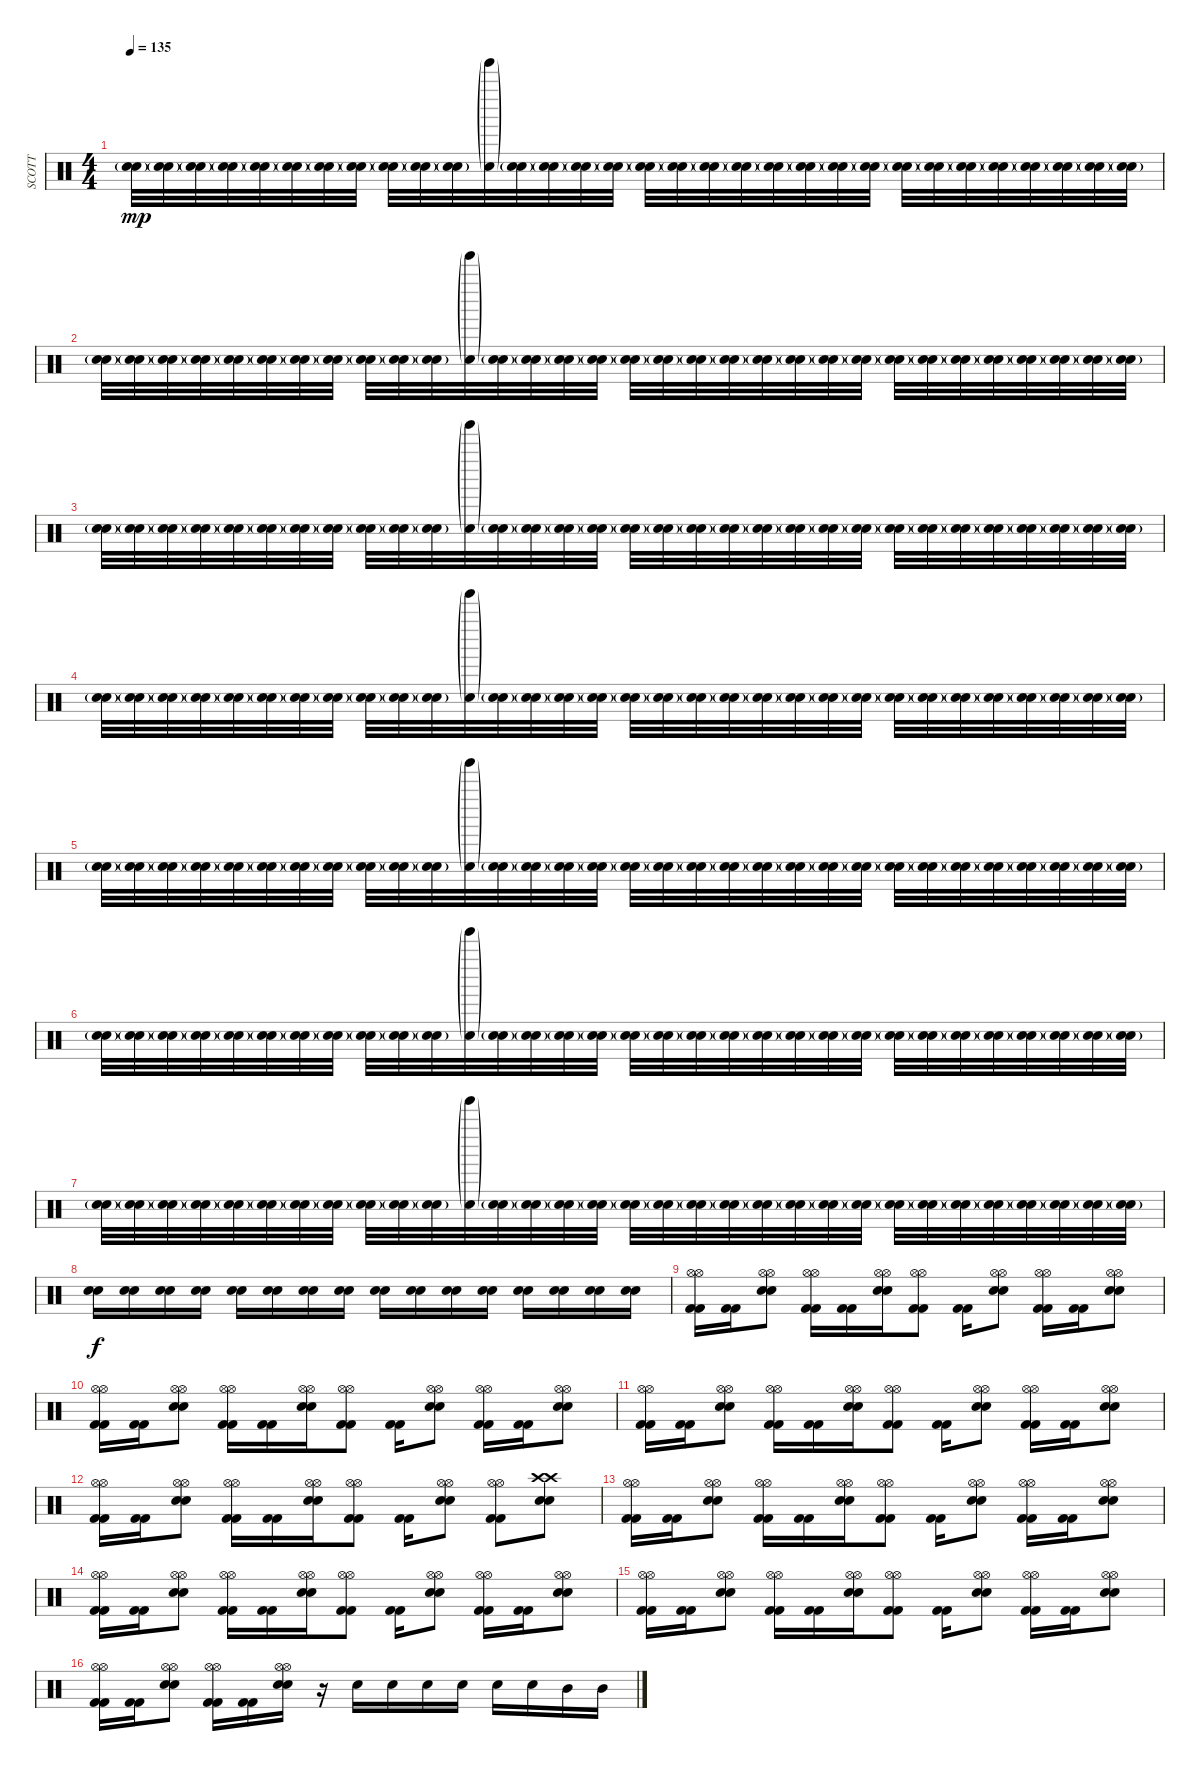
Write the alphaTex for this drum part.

\track ("SCOTT" "SCOTT") {instrument percussion}
\staff {score}
\articulation defaults
\ts (4 4)
\tempo 135
\clef neutral
\ks c
("Snare (hit) 2"{g} "Snare (hit) 2"{g}).32{dy mp} ("Snare (hit) 2"{g} "Snare (hit) 2"{g}).32 ("Snare (hit) 2"{g} "Snare (hit) 2"{g}).32 ("Snare (hit) 2"{g} "Snare (hit) 2"{g}).32 ("Snare (hit) 2"{g} "Snare (hit) 2"{g}).32 ("Snare (hit) 2"{g} "Snare (hit) 2"{g}).32 ("Snare (hit) 2"{g} "Snare (hit) 2"{g}).32 ("Snare (hit) 2"{g} "Snare (hit) 2"{g}).32 ("Snare (hit) 2"{g} "Snare (hit) 2"{g}).32 ("Snare (hit) 2"{g} "Snare (hit) 2"{g}).32 ("Snare (hit) 2"{g} "Snare (hit) 2"{g}).32 ("Snare (hit) 2"{g} "Tinkle Bell (hit)"{g}).32 ("Snare (hit) 2"{g} "Snare (hit) 2"{g}).32 ("Snare (hit) 2"{g} "Snare (hit) 2"{g}).32 ("Snare (hit) 2"{g} "Snare (hit) 2"{g}).32 ("Snare (hit) 2"{g} "Snare (hit) 2"{g}).32 ("Snare (hit) 2"{g} "Snare (hit) 2"{g}).32 ("Snare (hit) 2"{g} "Snare (hit) 2"{g}).32 ("Snare (hit) 2"{g} "Snare (hit) 2"{g}).32 ("Snare (hit) 2"{g} "Snare (hit) 2"{g}).32 ("Snare (hit) 2"{g} "Snare (hit) 2"{g}).32 ("Snare (hit) 2"{g} "Snare (hit) 2"{g}).32 ("Snare (hit) 2"{g} "Snare (hit) 2"{g}).32 ("Snare (hit) 2"{g} "Snare (hit) 2"{g}).32 ("Snare (hit) 2"{g} "Snare (hit) 2"{g}).32 ("Snare (hit) 2"{g} "Snare (hit) 2"{g}).32 ("Snare (hit) 2"{g} "Snare (hit) 2"{g}).32 ("Snare (hit) 2"{g} "Snare (hit) 2"{g}).32 ("Snare (hit) 2"{g} "Snare (hit) 2"{g}).32 ("Snare (hit) 2"{g} "Snare (hit) 2"{g}).32 ("Snare (hit) 2"{g} "Snare (hit) 2"{g}).32 ("Snare (hit) 2"{g} "Snare (hit) 2"{g}).32 |
("Snare (hit) 2"{g} "Snare (hit) 2"{g}).32 ("Snare (hit) 2"{g} "Snare (hit) 2"{g}).32 ("Snare (hit) 2"{g} "Snare (hit) 2"{g}).32 ("Snare (hit) 2"{g} "Snare (hit) 2"{g}).32 ("Snare (hit) 2"{g} "Snare (hit) 2"{g}).32 ("Snare (hit) 2"{g} "Snare (hit) 2"{g}).32 ("Snare (hit) 2"{g} "Snare (hit) 2"{g}).32 ("Snare (hit) 2"{g} "Snare (hit) 2"{g}).32 ("Snare (hit) 2"{g} "Snare (hit) 2"{g}).32 ("Snare (hit) 2"{g} "Snare (hit) 2"{g}).32 ("Snare (hit) 2"{g} "Snare (hit) 2"{g}).32 ("Snare (hit) 2"{g} "Tinkle Bell (hit)"{g}).32 ("Snare (hit) 2"{g} "Snare (hit) 2"{g}).32 ("Snare (hit) 2"{g} "Snare (hit) 2"{g}).32 ("Snare (hit) 2"{g} "Snare (hit) 2"{g}).32 ("Snare (hit) 2"{g} "Snare (hit) 2"{g}).32 ("Snare (hit) 2"{g} "Snare (hit) 2"{g}).32 ("Snare (hit) 2"{g} "Snare (hit) 2"{g}).32 ("Snare (hit) 2"{g} "Snare (hit) 2"{g}).32 ("Snare (hit) 2"{g} "Snare (hit) 2"{g}).32 ("Snare (hit) 2"{g} "Snare (hit) 2"{g}).32 ("Snare (hit) 2"{g} "Snare (hit) 2"{g}).32 ("Snare (hit) 2"{g} "Snare (hit) 2"{g}).32 ("Snare (hit) 2"{g} "Snare (hit) 2"{g}).32 ("Snare (hit) 2"{g} "Snare (hit) 2"{g}).32 ("Snare (hit) 2"{g} "Snare (hit) 2"{g}).32 ("Snare (hit) 2"{g} "Snare (hit) 2"{g}).32 ("Snare (hit) 2"{g} "Snare (hit) 2"{g}).32 ("Snare (hit) 2"{g} "Snare (hit) 2"{g}).32 ("Snare (hit) 2"{g} "Snare (hit) 2"{g}).32 ("Snare (hit) 2"{g} "Snare (hit) 2"{g}).32 ("Snare (hit) 2"{g} "Snare (hit) 2"{g}).32 |
("Snare (hit) 2"{g} "Snare (hit) 2"{g}).32 ("Snare (hit) 2"{g} "Snare (hit) 2"{g}).32 ("Snare (hit) 2"{g} "Snare (hit) 2"{g}).32 ("Snare (hit) 2"{g} "Snare (hit) 2"{g}).32 ("Snare (hit) 2"{g} "Snare (hit) 2"{g}).32 ("Snare (hit) 2"{g} "Snare (hit) 2"{g}).32 ("Snare (hit) 2"{g} "Snare (hit) 2"{g}).32 ("Snare (hit) 2"{g} "Snare (hit) 2"{g}).32 ("Snare (hit) 2"{g} "Snare (hit) 2"{g}).32 ("Snare (hit) 2"{g} "Snare (hit) 2"{g}).32 ("Snare (hit) 2"{g} "Snare (hit) 2"{g}).32 ("Snare (hit) 2"{g} "Tinkle Bell (hit)"{g}).32 ("Snare (hit) 2"{g} "Snare (hit) 2"{g}).32 ("Snare (hit) 2"{g} "Snare (hit) 2"{g}).32 ("Snare (hit) 2"{g} "Snare (hit) 2"{g}).32 ("Snare (hit) 2"{g} "Snare (hit) 2"{g}).32 ("Snare (hit) 2"{g} "Snare (hit) 2"{g}).32 ("Snare (hit) 2"{g} "Snare (hit) 2"{g}).32 ("Snare (hit) 2"{g} "Snare (hit) 2"{g}).32 ("Snare (hit) 2"{g} "Snare (hit) 2"{g}).32 ("Snare (hit) 2"{g} "Snare (hit) 2"{g}).32 ("Snare (hit) 2"{g} "Snare (hit) 2"{g}).32 ("Snare (hit) 2"{g} "Snare (hit) 2"{g}).32 ("Snare (hit) 2"{g} "Snare (hit) 2"{g}).32 ("Snare (hit) 2"{g} "Snare (hit) 2"{g}).32 ("Snare (hit) 2"{g} "Snare (hit) 2"{g}).32 ("Snare (hit) 2"{g} "Snare (hit) 2"{g}).32 ("Snare (hit) 2"{g} "Snare (hit) 2"{g}).32 ("Snare (hit) 2"{g} "Snare (hit) 2"{g}).32 ("Snare (hit) 2"{g} "Snare (hit) 2"{g}).32 ("Snare (hit) 2"{g} "Snare (hit) 2"{g}).32 ("Snare (hit) 2"{g} "Snare (hit) 2"{g}).32 |
("Snare (hit) 2"{g} "Snare (hit) 2"{g}).32 ("Snare (hit) 2"{g} "Snare (hit) 2"{g}).32 ("Snare (hit) 2"{g} "Snare (hit) 2"{g}).32 ("Snare (hit) 2"{g} "Snare (hit) 2"{g}).32 ("Snare (hit) 2"{g} "Snare (hit) 2"{g}).32 ("Snare (hit) 2"{g} "Snare (hit) 2"{g}).32 ("Snare (hit) 2"{g} "Snare (hit) 2"{g}).32 ("Snare (hit) 2"{g} "Snare (hit) 2"{g}).32 ("Snare (hit) 2"{g} "Snare (hit) 2"{g}).32 ("Snare (hit) 2"{g} "Snare (hit) 2"{g}).32 ("Snare (hit) 2"{g} "Snare (hit) 2"{g}).32 ("Snare (hit) 2"{g} "Tinkle Bell (hit)"{g}).32 ("Snare (hit) 2"{g} "Snare (hit) 2"{g}).32 ("Snare (hit) 2"{g} "Snare (hit) 2"{g}).32 ("Snare (hit) 2"{g} "Snare (hit) 2"{g}).32 ("Snare (hit) 2"{g} "Snare (hit) 2"{g}).32 ("Snare (hit) 2"{g} "Snare (hit) 2"{g}).32 ("Snare (hit) 2"{g} "Snare (hit) 2"{g}).32 ("Snare (hit) 2"{g} "Snare (hit) 2"{g}).32 ("Snare (hit) 2"{g} "Snare (hit) 2"{g}).32 ("Snare (hit) 2"{g} "Snare (hit) 2"{g}).32 ("Snare (hit) 2"{g} "Snare (hit) 2"{g}).32 ("Snare (hit) 2"{g} "Snare (hit) 2"{g}).32 ("Snare (hit) 2"{g} "Snare (hit) 2"{g}).32 ("Snare (hit) 2"{g} "Snare (hit) 2"{g}).32 ("Snare (hit) 2"{g} "Snare (hit) 2"{g}).32 ("Snare (hit) 2"{g} "Snare (hit) 2"{g}).32 ("Snare (hit) 2"{g} "Snare (hit) 2"{g}).32 ("Snare (hit) 2"{g} "Snare (hit) 2"{g}).32 ("Snare (hit) 2"{g} "Snare (hit) 2"{g}).32 ("Snare (hit) 2"{g} "Snare (hit) 2"{g}).32 ("Snare (hit) 2"{g} "Snare (hit) 2"{g}).32 |
("Snare (hit) 2"{g} "Snare (hit) 2"{g}).32 ("Snare (hit) 2"{g} "Snare (hit) 2"{g}).32 ("Snare (hit) 2"{g} "Snare (hit) 2"{g}).32 ("Snare (hit) 2"{g} "Snare (hit) 2"{g}).32 ("Snare (hit) 2"{g} "Snare (hit) 2"{g}).32 ("Snare (hit) 2"{g} "Snare (hit) 2"{g}).32 ("Snare (hit) 2"{g} "Snare (hit) 2"{g}).32 ("Snare (hit) 2"{g} "Snare (hit) 2"{g}).32 ("Snare (hit) 2"{g} "Snare (hit) 2"{g}).32 ("Snare (hit) 2"{g} "Snare (hit) 2"{g}).32 ("Snare (hit) 2"{g} "Snare (hit) 2"{g}).32 ("Snare (hit) 2"{g} "Tinkle Bell (hit)"{g}).32 ("Snare (hit) 2"{g} "Snare (hit) 2"{g}).32 ("Snare (hit) 2"{g} "Snare (hit) 2"{g}).32 ("Snare (hit) 2"{g} "Snare (hit) 2"{g}).32 ("Snare (hit) 2"{g} "Snare (hit) 2"{g}).32 ("Snare (hit) 2"{g} "Snare (hit) 2"{g}).32 ("Snare (hit) 2"{g} "Snare (hit) 2"{g}).32 ("Snare (hit) 2"{g} "Snare (hit) 2"{g}).32 ("Snare (hit) 2"{g} "Snare (hit) 2"{g}).32 ("Snare (hit) 2"{g} "Snare (hit) 2"{g}).32 ("Snare (hit) 2"{g} "Snare (hit) 2"{g}).32 ("Snare (hit) 2"{g} "Snare (hit) 2"{g}).32 ("Snare (hit) 2"{g} "Snare (hit) 2"{g}).32 ("Snare (hit) 2"{g} "Snare (hit) 2"{g}).32 ("Snare (hit) 2"{g} "Snare (hit) 2"{g}).32 ("Snare (hit) 2"{g} "Snare (hit) 2"{g}).32 ("Snare (hit) 2"{g} "Snare (hit) 2"{g}).32 ("Snare (hit) 2"{g} "Snare (hit) 2"{g}).32 ("Snare (hit) 2"{g} "Snare (hit) 2"{g}).32 ("Snare (hit) 2"{g} "Snare (hit) 2"{g}).32 ("Snare (hit) 2"{g} "Snare (hit) 2"{g}).32 |
("Snare (hit) 2"{g} "Snare (hit) 2"{g}).32 ("Snare (hit) 2"{g} "Snare (hit) 2"{g}).32 ("Snare (hit) 2"{g} "Snare (hit) 2"{g}).32 ("Snare (hit) 2"{g} "Snare (hit) 2"{g}).32 ("Snare (hit) 2"{g} "Snare (hit) 2"{g}).32 ("Snare (hit) 2"{g} "Snare (hit) 2"{g}).32 ("Snare (hit) 2"{g} "Snare (hit) 2"{g}).32 ("Snare (hit) 2"{g} "Snare (hit) 2"{g}).32 ("Snare (hit) 2"{g} "Snare (hit) 2"{g}).32 ("Snare (hit) 2"{g} "Snare (hit) 2"{g}).32 ("Snare (hit) 2"{g} "Snare (hit) 2"{g}).32 ("Snare (hit) 2"{g} "Tinkle Bell (hit)"{g}).32 ("Snare (hit) 2"{g} "Snare (hit) 2"{g}).32 ("Snare (hit) 2"{g} "Snare (hit) 2"{g}).32 ("Snare (hit) 2"{g} "Snare (hit) 2"{g}).32 ("Snare (hit) 2"{g} "Snare (hit) 2"{g}).32 ("Snare (hit) 2"{g} "Snare (hit) 2"{g}).32 ("Snare (hit) 2"{g} "Snare (hit) 2"{g}).32 ("Snare (hit) 2"{g} "Snare (hit) 2"{g}).32 ("Snare (hit) 2"{g} "Snare (hit) 2"{g}).32 ("Snare (hit) 2"{g} "Snare (hit) 2"{g}).32 ("Snare (hit) 2"{g} "Snare (hit) 2"{g}).32 ("Snare (hit) 2"{g} "Snare (hit) 2"{g}).32 ("Snare (hit) 2"{g} "Snare (hit) 2"{g}).32 ("Snare (hit) 2"{g} "Snare (hit) 2"{g}).32 ("Snare (hit) 2"{g} "Snare (hit) 2"{g}).32 ("Snare (hit) 2"{g} "Snare (hit) 2"{g}).32 ("Snare (hit) 2"{g} "Snare (hit) 2"{g}).32 ("Snare (hit) 2"{g} "Snare (hit) 2"{g}).32 ("Snare (hit) 2"{g} "Snare (hit) 2"{g}).32 ("Snare (hit) 2"{g} "Snare (hit) 2"{g}).32 ("Snare (hit) 2"{g} "Snare (hit) 2"{g}).32 |
("Snare (hit) 2"{g} "Snare (hit) 2"{g}).32 ("Snare (hit) 2"{g} "Snare (hit) 2"{g}).32 ("Snare (hit) 2"{g} "Snare (hit) 2"{g}).32 ("Snare (hit) 2"{g} "Snare (hit) 2"{g}).32 ("Snare (hit) 2"{g} "Snare (hit) 2"{g}).32 ("Snare (hit) 2"{g} "Snare (hit) 2"{g}).32 ("Snare (hit) 2"{g} "Snare (hit) 2"{g}).32 ("Snare (hit) 2"{g} "Snare (hit) 2"{g}).32 ("Snare (hit) 2"{g} "Snare (hit) 2"{g}).32 ("Snare (hit) 2"{g} "Snare (hit) 2"{g}).32 ("Snare (hit) 2"{g} "Snare (hit) 2"{g}).32 ("Snare (hit) 2"{g} "Tinkle Bell (hit)"{g}).32 ("Snare (hit) 2"{g} "Snare (hit) 2"{g}).32 ("Snare (hit) 2"{g} "Snare (hit) 2"{g}).32 ("Snare (hit) 2"{g} "Snare (hit) 2"{g}).32 ("Snare (hit) 2"{g} "Snare (hit) 2"{g}).32 ("Snare (hit) 2"{g} "Snare (hit) 2"{g}).32 ("Snare (hit) 2"{g} "Snare (hit) 2"{g}).32 ("Snare (hit) 2"{g} "Snare (hit) 2"{g}).32 ("Snare (hit) 2"{g} "Snare (hit) 2"{g}).32 ("Snare (hit) 2"{g} "Snare (hit) 2"{g}).32 ("Snare (hit) 2"{g} "Snare (hit) 2"{g}).32 ("Snare (hit) 2"{g} "Snare (hit) 2"{g}).32 ("Snare (hit) 2"{g} "Snare (hit) 2"{g}).32 ("Snare (hit) 2"{g} "Snare (hit) 2"{g}).32 ("Snare (hit) 2"{g} "Snare (hit) 2"{g}).32 ("Snare (hit) 2"{g} "Snare (hit) 2"{g}).32 ("Snare (hit) 2"{g} "Snare (hit) 2"{g}).32 ("Snare (hit) 2"{g} "Snare (hit) 2"{g}).32 ("Snare (hit) 2"{g} "Snare (hit) 2"{g}).32 ("Snare (hit) 2"{g} "Snare (hit) 2"{g}).32 ("Snare (hit) 2"{g} "Snare (hit) 2"{g}).32 |
("Snare (hit) 2" "Snare (hit) 2").16{dy f} ("Snare (hit) 2" "Snare (hit) 2").16 ("Snare (hit) 2" "Snare (hit) 2").16 ("Snare (hit) 2" "Snare (hit) 2").16 ("Snare (hit) 2" "Snare (hit) 2").16 ("Snare (hit) 2" "Snare (hit) 2").16 ("Snare (hit) 2" "Snare (hit) 2").16 ("Snare (hit) 2" "Snare (hit) 2").16 ("Snare (hit) 2" "Snare (hit) 2").16 ("Snare (hit) 2" "Snare (hit) 2").16 ("Snare (hit) 2" "Snare (hit) 2").16 ("Snare (hit) 2" "Snare (hit) 2").16 ("Snare (hit) 2" "Snare (hit) 2").16 ("Snare (hit) 2" "Snare (hit) 2").16 ("Snare (hit) 2" "Snare (hit) 2").16 ("Snare (hit) 2" "Snare (hit) 2").16 |
("Kick (hit) 2" "Kick (hit) 2" "Hi-Hat (open)" "Hi-Hat (open)").16 ("Kick (hit) 2" "Kick (hit) 2").16 ("Snare (hit) 2" "Snare (hit) 2" "Hi-Hat (open)" "Hi-Hat (open)").8 ("Kick (hit) 2" "Kick (hit) 2" "Hi-Hat (open)" "Hi-Hat (open)").16 ("Kick (hit) 2" "Kick (hit) 2").16 ("Snare (hit) 2" "Snare (hit) 2" "Hi-Hat (open)" "Hi-Hat (open)").16 ("Kick (hit) 2" "Kick (hit) 2" "Hi-Hat (open)" "Hi-Hat (open)").8 ("Kick (hit) 2" "Kick (hit) 2").16 ("Snare (hit) 2" "Snare (hit) 2" "Hi-Hat (open)" "Hi-Hat (open)").8 ("Kick (hit) 2" "Kick (hit) 2" "Hi-Hat (open)" "Hi-Hat (open)").16 ("Kick (hit) 2" "Kick (hit) 2").16 ("Snare (hit) 2" "Snare (hit) 2" "Hi-Hat (open)" "Hi-Hat (open)").8 |
("Kick (hit) 2" "Kick (hit) 2" "Hi-Hat (open)" "Hi-Hat (open)").16 ("Kick (hit) 2" "Kick (hit) 2").16 ("Snare (hit) 2" "Snare (hit) 2" "Hi-Hat (open)" "Hi-Hat (open)").8 ("Kick (hit) 2" "Kick (hit) 2" "Hi-Hat (open)" "Hi-Hat (open)").16 ("Kick (hit) 2" "Kick (hit) 2").16 ("Snare (hit) 2" "Snare (hit) 2" "Hi-Hat (open)" "Hi-Hat (open)").16 ("Kick (hit) 2" "Kick (hit) 2" "Hi-Hat (open)" "Hi-Hat (open)").8 ("Kick (hit) 2" "Kick (hit) 2").16 ("Snare (hit) 2" "Snare (hit) 2" "Hi-Hat (open)" "Hi-Hat (open)").8 ("Kick (hit) 2" "Kick (hit) 2" "Hi-Hat (open)" "Hi-Hat (open)").16 ("Kick (hit) 2" "Kick (hit) 2").16 ("Snare (hit) 2" "Snare (hit) 2" "Hi-Hat (open)" "Hi-Hat (open)").8 |
("Kick (hit) 2" "Kick (hit) 2" "Hi-Hat (open)" "Hi-Hat (open)").16 ("Kick (hit) 2" "Kick (hit) 2").16 ("Snare (hit) 2" "Snare (hit) 2" "Hi-Hat (open)" "Hi-Hat (open)").8 ("Kick (hit) 2" "Kick (hit) 2" "Hi-Hat (open)" "Hi-Hat (open)").16 ("Kick (hit) 2" "Kick (hit) 2").16 ("Snare (hit) 2" "Snare (hit) 2" "Hi-Hat (open)" "Hi-Hat (open)").16 ("Kick (hit) 2" "Kick (hit) 2" "Hi-Hat (open)" "Hi-Hat (open)").8 ("Kick (hit) 2" "Kick (hit) 2").16 ("Snare (hit) 2" "Snare (hit) 2" "Hi-Hat (open)" "Hi-Hat (open)").8 ("Kick (hit) 2" "Kick (hit) 2" "Hi-Hat (open)" "Hi-Hat (open)").16 ("Kick (hit) 2" "Kick (hit) 2").16 ("Snare (hit) 2" "Snare (hit) 2" "Hi-Hat (open)" "Hi-Hat (open)").8 |
("Kick (hit) 2" "Kick (hit) 2" "Hi-Hat (open)" "Hi-Hat (open)").16 ("Kick (hit) 2" "Kick (hit) 2").16 ("Snare (hit) 2" "Snare (hit) 2" "Hi-Hat (open)" "Hi-Hat (open)").8 ("Kick (hit) 2" "Kick (hit) 2" "Hi-Hat (open)" "Hi-Hat (open)").16 ("Kick (hit) 2" "Kick (hit) 2").16 ("Snare (hit) 2" "Snare (hit) 2" "Hi-Hat (open)" "Hi-Hat (open)").16 ("Kick (hit) 2" "Kick (hit) 2" "Hi-Hat (open)" "Hi-Hat (open)").8 ("Kick (hit) 2" "Kick (hit) 2").16 ("Snare (hit) 2" "Snare (hit) 2" "Hi-Hat (open)" "Hi-Hat (open)").8 ("Kick (hit) 2" "Kick (hit) 2" "Hi-Hat (open)" "Hi-Hat (open)").8 ("Snare (hit) 2" "Snare (hit) 2" "Crash high (hit)" "Crash high (hit)").8 |
("Kick (hit) 2" "Kick (hit) 2" "Hi-Hat (open)" "Hi-Hat (open)").16 ("Kick (hit) 2" "Kick (hit) 2").16 ("Snare (hit) 2" "Snare (hit) 2" "Hi-Hat (open)" "Hi-Hat (open)").8 ("Kick (hit) 2" "Kick (hit) 2" "Hi-Hat (open)" "Hi-Hat (open)").16 ("Kick (hit) 2" "Kick (hit) 2").16 ("Snare (hit) 2" "Snare (hit) 2" "Hi-Hat (open)" "Hi-Hat (open)").16 ("Kick (hit) 2" "Kick (hit) 2" "Hi-Hat (open)" "Hi-Hat (open)").8 ("Kick (hit) 2" "Kick (hit) 2").16 ("Snare (hit) 2" "Snare (hit) 2" "Hi-Hat (open)" "Hi-Hat (open)").8 ("Kick (hit) 2" "Kick (hit) 2" "Hi-Hat (open)" "Hi-Hat (open)").16 ("Kick (hit) 2" "Kick (hit) 2").16 ("Snare (hit) 2" "Snare (hit) 2" "Hi-Hat (open)" "Hi-Hat (open)").8 |
("Kick (hit) 2" "Kick (hit) 2" "Hi-Hat (open)" "Hi-Hat (open)").16 ("Kick (hit) 2" "Kick (hit) 2").16 ("Snare (hit) 2" "Snare (hit) 2" "Hi-Hat (open)" "Hi-Hat (open)").8 ("Kick (hit) 2" "Kick (hit) 2" "Hi-Hat (open)" "Hi-Hat (open)").16 ("Kick (hit) 2" "Kick (hit) 2").16 ("Snare (hit) 2" "Snare (hit) 2" "Hi-Hat (open)" "Hi-Hat (open)").16 ("Kick (hit) 2" "Kick (hit) 2" "Hi-Hat (open)" "Hi-Hat (open)").8 ("Kick (hit) 2" "Kick (hit) 2").16 ("Snare (hit) 2" "Snare (hit) 2" "Hi-Hat (open)" "Hi-Hat (open)").8 ("Kick (hit) 2" "Kick (hit) 2" "Hi-Hat (open)" "Hi-Hat (open)").16 ("Kick (hit) 2" "Kick (hit) 2").16 ("Snare (hit) 2" "Snare (hit) 2" "Hi-Hat (open)" "Hi-Hat (open)").8 |
("Kick (hit) 2" "Kick (hit) 2" "Hi-Hat (open)" "Hi-Hat (open)").16 ("Kick (hit) 2" "Kick (hit) 2").16 ("Snare (hit) 2" "Snare (hit) 2" "Hi-Hat (open)" "Hi-Hat (open)").8 ("Kick (hit) 2" "Kick (hit) 2" "Hi-Hat (open)" "Hi-Hat (open)").16 ("Kick (hit) 2" "Kick (hit) 2").16 ("Snare (hit) 2" "Snare (hit) 2" "Hi-Hat (open)" "Hi-Hat (open)").16 ("Kick (hit) 2" "Kick (hit) 2" "Hi-Hat (open)" "Hi-Hat (open)").8 ("Kick (hit) 2" "Kick (hit) 2").16 ("Snare (hit) 2" "Snare (hit) 2" "Hi-Hat (open)" "Hi-Hat (open)").8 ("Kick (hit) 2" "Kick (hit) 2" "Hi-Hat (open)" "Hi-Hat (open)").16 ("Kick (hit) 2" "Kick (hit) 2").16 ("Snare (hit) 2" "Snare (hit) 2" "Hi-Hat (open)" "Hi-Hat (open)").8 |
("Kick (hit) 2" "Kick (hit) 2" "Hi-Hat (open)" "Hi-Hat (open)").16 ("Kick (hit) 2" "Kick (hit) 2").16 ("Snare (hit) 2" "Snare (hit) 2" "Hi-Hat (open)" "Hi-Hat (open)").8 ("Kick (hit) 2" "Kick (hit) 2" "Hi-Hat (open)" "Hi-Hat (open)").16 ("Kick (hit) 2" "Kick (hit) 2").16 ("Snare (hit) 2" "Snare (hit) 2" "Hi-Hat (open)" "Hi-Hat (open)").16 r.16 "Snare (hit) 2".16 "Snare (hit) 2".16 "Snare (hit) 2".16 "Snare (hit) 2".16 "Snare (hit) 2".16 "Snare (hit) 2".16 "Mid Tom (hit)".16 "Mid Tom (hit)".16
